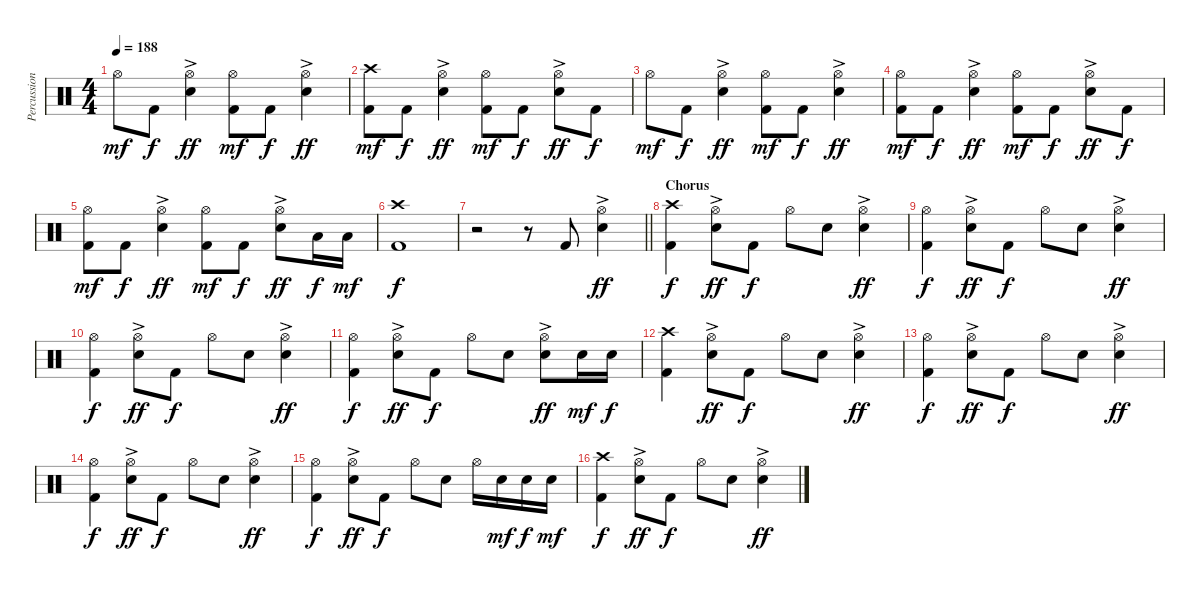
\track ("Percussion" "Percussion") {instrument percussion}
\staff {score}
\articulation defaults
\ts (4 4)
\tempo 188
\clef neutral
\ks c "Hi-Hat (open)".8{dy mf} "Kick (hit) 2".8{dy f}
("Hi-Hat (open)" "Electric Snare (hit)"{ac}).4{dy ff} ("Hi-Hat (open)" "Kick (hit) 2").8{dy mf} "Kick (hit) 2".8{dy f} ("Hi-Hat (open)" "Electric Snare (hit)"{ac}).4{dy ff} |
("Crash high (hit)" "Kick (hit) 2").8{dy mf} "Kick (hit) 2".8{dy f} ("Hi-Hat (open)" "Electric Snare (hit)"{ac}).4{dy ff} ("Hi-Hat (open)" "Kick (hit) 2").8{dy mf} "Kick (hit) 2".8{dy f} ("Hi-Hat (open)" "Electric Snare (hit)"{ac}).8{dy ff} "Kick (hit) 2".8{dy f} |
"Hi-Hat (open)".8{dy mf} "Kick (hit) 2".8{dy f} ("Hi-Hat (open)" "Electric Snare (hit)"{ac}).4{dy ff} ("Hi-Hat (open)" "Kick (hit) 2").8{dy mf} "Kick (hit) 2".8{dy f} ("Hi-Hat (open)" "Electric Snare (hit)"{ac}).4{dy ff} |
("Hi-Hat (open)" "Kick (hit) 2").8{dy mf} "Kick (hit) 2".8{dy f} ("Hi-Hat (open)" "Electric Snare (hit)"{ac}).4{dy ff} ("Hi-Hat (open)" "Kick (hit) 2").8{dy mf} "Kick (hit) 2".8{dy f} ("Hi-Hat (open)" "Electric Snare (hit)"{ac}).8{dy ff} "Kick (hit) 2".8{dy f} |
("Hi-Hat (open)" "Kick (hit) 2").8{dy mf} "Kick (hit) 2".8{dy f} ("Hi-Hat (open)" "Electric Snare (hit)"{ac}).4{dy ff} ("Hi-Hat (open)" "Kick (hit) 2").8{dy mf} "Kick (hit) 2".8{dy f} ("Hi-Hat (open)" "Electric Snare (hit)"{ac}).8{dy ff} "Low Tom (hit)".16{dy f} "Low Tom (hit)".16{dy mf} |
("Crash high (hit)" "Kick (hit) 2").1{dy f} |
\barLineRight lightlight
r.2 r.8 "Kick (hit) 2".8 ("Hi-Hat (open)" "Electric Snare (hit)"{ac}).4{dy ff} |
\section ("" "Chorus")
("Crash high (hit)" "Kick (hit) 2").4{dy f} ("Hi-Hat (open)" "Electric Snare (hit)"{ac}).8{dy ff} "Kick (hit) 2".8{dy f} "Hi-Hat (open)".8 "Electric Snare (hit)".8 ("Hi-Hat (open)" "Electric Snare (hit)"{ac}).4{dy ff} |
("Hi-Hat (open)" "Kick (hit) 2").4{dy f} ("Hi-Hat (open)" "Electric Snare (hit)"{ac}).8{dy ff} "Kick (hit) 2".8{dy f} "Hi-Hat (open)".8 "Electric Snare (hit)".8 ("Hi-Hat (open)" "Electric Snare (hit)"{ac}).4{dy ff} |
("Hi-Hat (open)" "Kick (hit) 2").4{dy f} ("Hi-Hat (open)" "Electric Snare (hit)"{ac}).8{dy ff} "Kick (hit) 2".8{dy f} "Hi-Hat (open)".8 "Electric Snare (hit)".8 ("Hi-Hat (open)" "Electric Snare (hit)"{ac}).4{dy ff} |
("Hi-Hat (open)" "Kick (hit) 2").4{dy f} ("Hi-Hat (open)" "Electric Snare (hit)"{ac}).8{dy ff} "Kick (hit) 2".8{dy f} "Hi-Hat (open)".8 "Electric Snare (hit)".8 ("Hi-Hat (open)" "Electric Snare (hit)"{ac}).8{dy ff} "Electric Snare (hit)".16{dy mf} "Electric Snare (hit)".16{dy f} |
("Crash high (hit)" "Kick (hit) 2").4 ("Hi-Hat (open)" "Electric Snare (hit)"{ac}).8{dy ff} "Kick (hit) 2".8{dy f} "Hi-Hat (open)".8 "Electric Snare (hit)".8 ("Hi-Hat (open)" "Electric Snare (hit)"{ac}).4{dy ff} |
("Hi-Hat (open)" "Kick (hit) 2").4{dy f} ("Hi-Hat (open)" "Electric Snare (hit)"{ac}).8{dy ff} "Kick (hit) 2".8{dy f} "Hi-Hat (open)".8 "Electric Snare (hit)".8 ("Hi-Hat (open)" "Electric Snare (hit)"{ac}).4{dy ff} |
("Hi-Hat (open)" "Kick (hit) 2").4{dy f} ("Hi-Hat (open)" "Electric Snare (hit)"{ac}).8{dy ff} "Kick (hit) 2".8{dy f} "Hi-Hat (open)".8 "Electric Snare (hit)".8 ("Hi-Hat (open)" "Electric Snare (hit)"{ac}).4{dy ff} |
("Hi-Hat (open)" "Kick (hit) 2").4{dy f} ("Hi-Hat (open)" "Electric Snare (hit)"{ac}).8{dy ff} "Kick (hit) 2".8{dy f} "Hi-Hat (open)".8 "Electric Snare (hit)".8 "Hi-Hat (open)".16 "Electric Snare (hit)".16{dy mf} "Electric Snare (hit)".16{dy f} "Electric Snare (hit)".16{dy mf} |
("Crash high (hit)" "Kick (hit) 2").4{dy f} ("Hi-Hat (open)" "Electric Snare (hit)"{ac}).8{dy ff} "Kick (hit) 2".8{dy f} "Hi-Hat (open)".8 "Electric Snare (hit)".8 ("Hi-Hat (open)" "Electric Snare (hit)"{ac}).4{dy ff}
